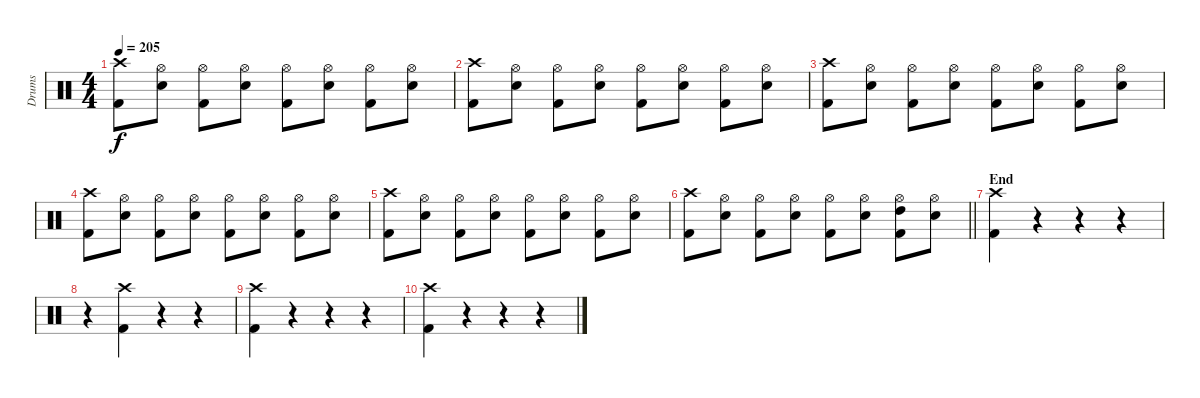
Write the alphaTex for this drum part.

\track ("Drums" "Drums") {instrument percussion}
\staff {score}
\articulation defaults
\ts (4 4)
\tempo 205
\clef neutral
\ks c
("Crash high (hit)" "Kick (hit) 2").8{dy f} ("Hi-Hat (open)" "Snare (hit) 2").8 ("Hi-Hat (open)" "Kick (hit) 2").8 ("Hi-Hat (open)" "Snare (hit) 2").8 ("Hi-Hat (open)" "Kick (hit) 2").8 ("Hi-Hat (open)" "Snare (hit) 2").8 ("Hi-Hat (open)" "Kick (hit) 2").8 ("Hi-Hat (open)" "Snare (hit) 2").8 |
("Crash high (hit)" "Kick (hit) 2").8 ("Hi-Hat (open)" "Snare (hit) 2").8 ("Hi-Hat (open)" "Kick (hit) 2").8 ("Hi-Hat (open)" "Snare (hit) 2").8 ("Hi-Hat (open)" "Kick (hit) 2").8 ("Hi-Hat (open)" "Snare (hit) 2").8 ("Hi-Hat (open)" "Kick (hit) 2").8 ("Hi-Hat (open)" "Snare (hit) 2").8 |
("Crash high (hit)" "Kick (hit) 2").8 ("Hi-Hat (open)" "Snare (hit) 2").8 ("Hi-Hat (open)" "Kick (hit) 2").8 ("Hi-Hat (open)" "Snare (hit) 2").8 ("Hi-Hat (open)" "Kick (hit) 2").8 ("Hi-Hat (open)" "Snare (hit) 2").8 ("Hi-Hat (open)" "Kick (hit) 2").8 ("Hi-Hat (open)" "Snare (hit) 2").8 |
("Crash high (hit)" "Kick (hit) 2").8 ("Hi-Hat (open)" "Snare (hit) 2").8 ("Hi-Hat (open)" "Kick (hit) 2").8 ("Hi-Hat (open)" "Snare (hit) 2").8 ("Hi-Hat (open)" "Kick (hit) 2").8 ("Hi-Hat (open)" "Snare (hit) 2").8 ("Hi-Hat (open)" "Kick (hit) 2").8 ("Hi-Hat (open)" "Snare (hit) 2").8 |
("Crash high (hit)" "Kick (hit) 2").8 ("Hi-Hat (open)" "Snare (hit) 2").8 ("Hi-Hat (open)" "Kick (hit) 2").8 ("Hi-Hat (open)" "Snare (hit) 2").8 ("Hi-Hat (open)" "Kick (hit) 2").8 ("Hi-Hat (open)" "Snare (hit) 2").8 ("Hi-Hat (open)" "Kick (hit) 2").8 ("Hi-Hat (open)" "Snare (hit) 2").8 |
\barLineRight lightlight
("Crash high (hit)" "Kick (hit) 2").8 ("Hi-Hat (open)" "Snare (hit) 2").8 ("Hi-Hat (open)" "Kick (hit) 2").8 ("Hi-Hat (open)" "Snare (hit) 2").8 ("Hi-Hat (open)" "Kick (hit) 2").8 ("Hi-Hat (open)" "Snare (hit) 2").8 ("Hi-Hat (open)" "High Tom (hit)" "Kick (hit) 2").8 ("Hi-Hat (open)" "Snare (hit) 2").8 |
\section ("" "End")
("Crash high (hit)" "Kick (hit) 2").4 r.4 r.4 r.4 |
r.4 ("Crash high (hit)" "Kick (hit) 2").4 r.4 r.4 |
("Crash high (hit)" "Kick (hit) 2").4 r.4 r.4 r.4 |
("Crash high (hit)" "Kick (hit) 2").4 r.4 r.4 r.4
